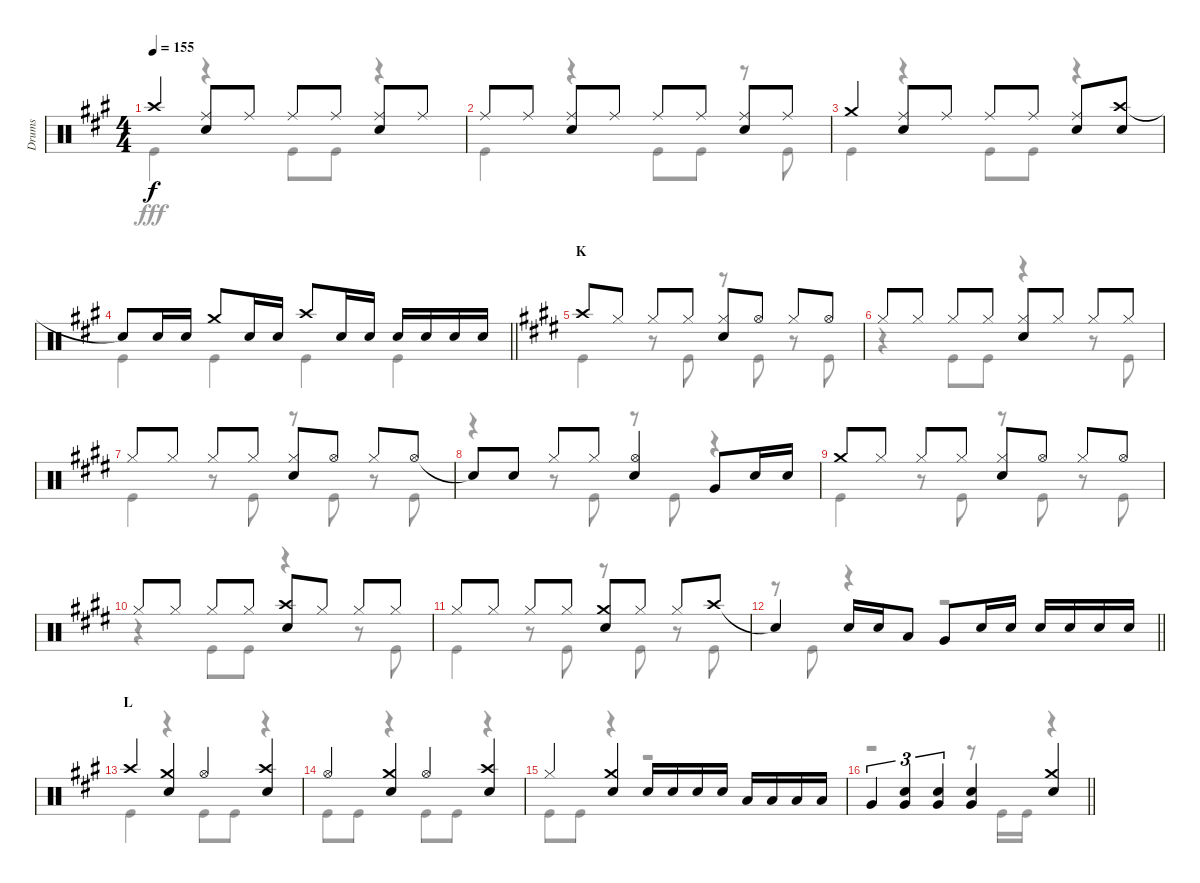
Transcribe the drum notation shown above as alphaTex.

\track ("Drums" "Drums") {instrument percussion}
\staff {score}
\articulation defaults
\voice
\ts (4 4)
\tempo 155
\clef neutral
\ks a "Crash high (hit)".4{dy f}
("Ride (middle)" "Snare (hit) 2").8 "Ride (middle)".8 "Ride (middle)".8 "Ride (middle)".8 ("Ride (middle)" "Snare (hit) 2").8 "Ride (middle)".8 |
"Ride (middle)".8 "Ride (middle)".8 ("Ride (middle)" "Snare (hit) 2").8 "Ride (middle)".8 "Ride (middle)".8 "Ride (middle)".8 ("Ride (middle)" "Snare (hit) 2").8 "Ride (middle)".8 |
"Crash medium (hit)".4 ("Ride (middle)" "Snare (hit) 2").8 "Ride (middle)".8 "Ride (middle)".8 "Ride (middle)".8 ("Ride (middle)" "Snare (hit) 2").8 ("Crash high (hit)" "Snare (hit) 2").8 |
\barLineRight lightlight "Snare (hit)"{t}.8 "Snare (hit) 2".16 "Snare (hit) 2".16 "Crash medium (hit)".8 "Snare (hit) 2".16 "Snare (hit) 2".16 "Crash high (hit)".8 "Snare (hit) 2".16 "Snare (hit) 2".16 "Snare (hit) 2".16 "Snare (hit) 2".16 "Snare (hit) 2".16 "Snare (hit) 2".16
|
\section ("" "K")
\ks e "Crash high (hit)".8 "Hi-Hat (closed)".8 "Hi-Hat (closed)".8 "Hi-Hat (closed)".8
("Hi-Hat (closed)" "Snare (hit) 2").8 "Hi-Hat (open)".8 "Hi-Hat (closed)".8 "Hi-Hat (open)".8 |
"Hi-Hat (closed)".8 "Hi-Hat (closed)".8 "Hi-Hat (closed)".8 "Hi-Hat (closed)".8 ("Hi-Hat (closed)" "Snare (hit) 2").8 "Hi-Hat (closed)".8 "Hi-Hat (closed)".8 "Hi-Hat (closed)".8 |
"Hi-Hat (closed)".8 "Hi-Hat (closed)".8 "Hi-Hat (closed)".8 "Hi-Hat (closed)".8 ("Hi-Hat (closed)" "Snare (hit) 2").8 "Hi-Hat (open)".8 "Hi-Hat (closed)".8 "Hi-Hat (open)".8 |
"Snare (hit)"{t}.8 "Snare (hit) 2".8 "Hi-Hat (closed)".8 "Hi-Hat (closed)".8 ("Hi-Hat (open)" "Snare (hit) 2").4 "Very Low Tom (hit)".8 "Snare (hit) 2".16 "Snare (hit) 2".16 |
"Crash medium (hit)".8 "Hi-Hat (closed)".8 "Hi-Hat (closed)".8 "Hi-Hat (closed)".8 ("Hi-Hat (closed)" "Snare (hit) 2").8 "Hi-Hat (open)".8 "Hi-Hat (closed)".8 "Hi-Hat (open)".8 |
"Hi-Hat (closed)".8 "Hi-Hat (closed)".8 "Hi-Hat (closed)".8 "Hi-Hat (closed)".8 ("Crash high (hit)" "Snare (hit) 2").8 "Hi-Hat (closed)".8 "Hi-Hat (closed)".8 "Hi-Hat (closed)".8 |
"Hi-Hat (closed)".8 "Hi-Hat (closed)".8 "Hi-Hat (closed)".8 "Hi-Hat (closed)".8 ("Crash medium (hit)" "Snare (hit) 2").8 "Hi-Hat (closed)".8 "Hi-Hat (closed)".8 "Crash high (hit)".8 |
\barLineRight lightlight "Snare (hit)"{t}.4 "Snare (hit) 2".16 "Snare (hit) 2".16 "Low Tom (hit)".8 "Very Low Tom (hit)".8 "Snare (hit) 2".16 "Snare (hit) 2".16 "Snare (hit) 2".16 "Snare (hit) 2".16 "Snare (hit) 2".16 "Snare (hit) 2".16
|
\section ("" "L")
\ks a "Crash high (hit)".4
("Crash medium (hit)" "Snare (hit) 2").4 "Hi-Hat (open)".4 ("Crash high (hit)" "Snare (hit) 2").4 |
"Hi-Hat (open)".4 ("Crash medium (hit)" "Snare (hit) 2").4 "Hi-Hat (open)".4 ("Crash high (hit)" "Snare (hit) 2").4 |
"Hi-Hat (closed)".4 ("Crash medium (hit)" "Snare (hit) 2").4 "Snare (hit) 2".16 "Snare (hit) 2".16 "Snare (hit) 2".16 "Snare (hit) 2".16 "Low Tom (hit)".16 "Low Tom (hit)".16 "Low Tom (hit)".16 "Low Tom (hit)".16 |
\barLineRight lightlight "Very Low Tom (hit)".4{tu (3 2)}
("Snare (hit) 2" "Very Low Tom (hit)").4{tu (3 2)} ("Snare (hit) 2" "Very Low Tom (hit)").4{tu (3 2)} ("Snare (hit) 2" "Very Low Tom (hit)").4 ("Crash medium (hit)" "Snare (hit) 2").4
\voice
\clef neutral
\ottava regular
\simile none
\ks a "Kick (hit)".4{dy fff}
r.4 "Kick (hit)".8 "Kick (hit)".8 r.4 |
"Kick (hit)".4 r.4 "Kick (hit)".8 "Kick (hit)".8 r.8 "Kick (hit)".8 |
"Kick (hit)".4 r.4 "Kick (hit)".8 "Kick (hit)".8 r.4 |
\barLineRight lightlight "Kick (hit)".4 "Kick (hit)".4 "Kick (hit)".4 "Kick (hit)".4
|
\ks e "Kick (hit)".4
r.8 "Kick (hit)".8 r.8 "Kick (hit)".8 r.8 "Kick (hit)".8 |
r.4 "Kick (hit)".8 "Kick (hit)".8 r.4 r.8 "Kick (hit)".8 |
"Kick (hit)".4 r.8 "Kick (hit)".8 r.8 "Kick (hit)".8 r.8 "Kick (hit)".8 |
r.4 r.8 "Kick (hit)".8 r.8 "Kick (hit)".8 r.4 |
"Kick (hit)".4 r.8 "Kick (hit)".8 r.8 "Kick (hit)".8 r.8 "Kick (hit)".8 |
r.4 "Kick (hit)".8 "Kick (hit)".8 r.4 r.8 "Kick (hit)".8 |
"Kick (hit)".4 r.8 "Kick (hit)".8 r.8 "Kick (hit)".8 r.8 "Kick (hit)".8 |
\barLineRight lightlight
r.8 "Kick (hit)".8 r.4 r.2 |
\ks a "Kick (hit)".4
r.4 "Kick (hit)".8 "Kick (hit)".8 r.4 |
"Kick (hit)".8 "Kick (hit)".8 r.4 "Kick (hit)".8 "Kick (hit)".8 r.4 |
"Kick (hit)".8 "Kick (hit)".8 r.4 r.2 |
\barLineRight lightlight
r.2 r.8 "Kick (hit)".16 "Kick (hit)".16 r.4
